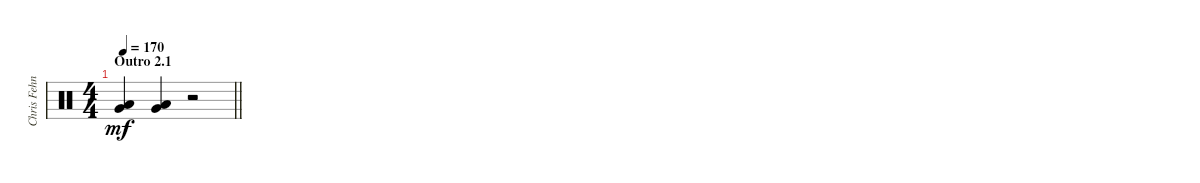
\track ("Chris Fehn" "Chris Fehn") {instrument percussion}
\staff {score}
\articulation defaults
\ts (4 4)
\section ("" "Outro 2.1")
\tempo 170
\clef neutral
\barLineRight lightlight
\ks c
("Very Low Tom (hit)" "Low Floor Tom (hit)").4{dy mf} ("Very Low Tom (hit)" "Low Floor Tom (hit)").4 r.2
